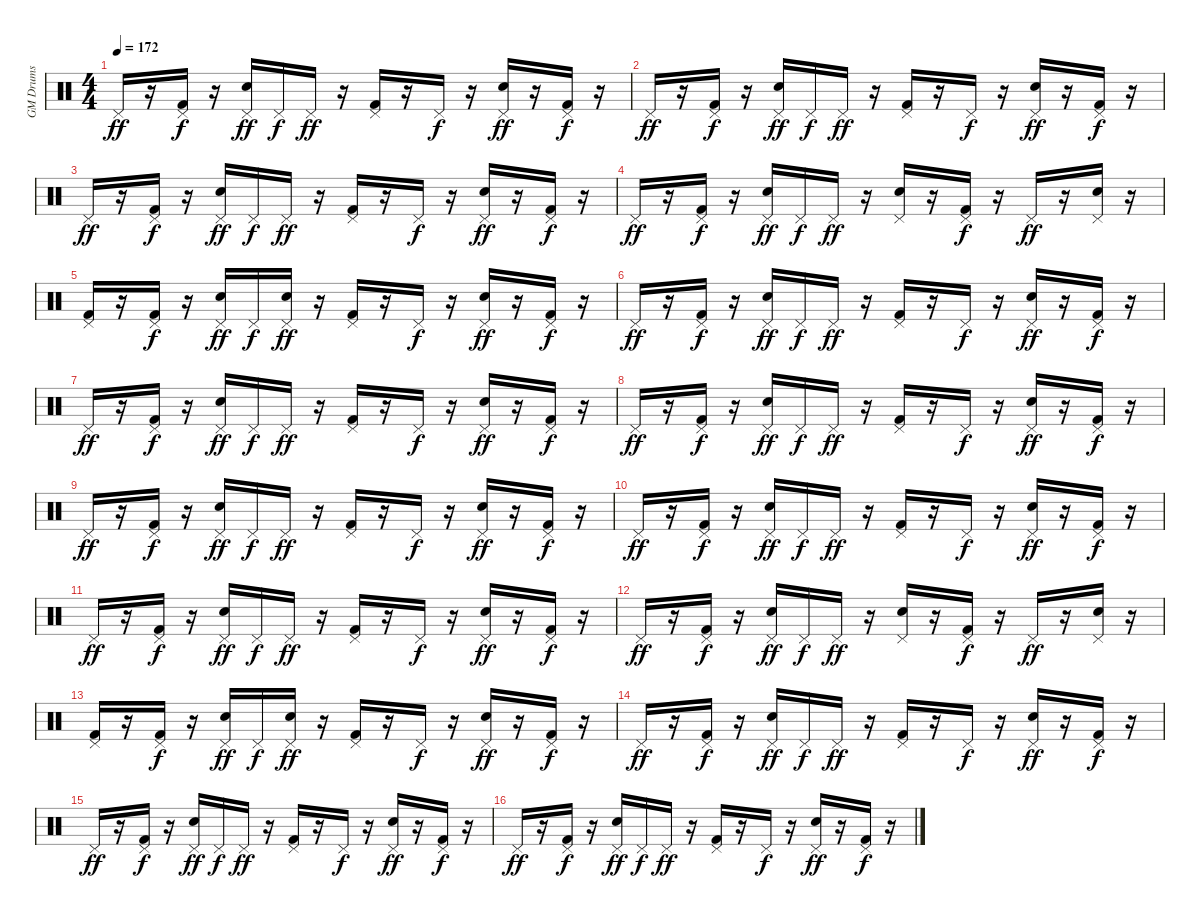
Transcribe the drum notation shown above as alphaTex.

\track ("GM Drums" "GM Drums") {instrument percussion}
\staff {score}
\articulation defaults
\ts (4 4)
\tempo 172
\clef neutral
\ks c "Pedal Hi-Hat (hit)".16{dy ff}
r.16 ("Kick (hit) 2" "Pedal Hi-Hat (hit)").16{dy f} r.16 ("Snare (hit) 2" "Pedal Hi-Hat (hit)").16{dy ff} "Pedal Hi-Hat (hit)".16{dy f} "Pedal Hi-Hat (hit)".16{dy ff} r.16 ("Kick (hit) 2" "Pedal Hi-Hat (hit)").16 r.16 "Pedal Hi-Hat (hit)".16{dy f} r.16 ("Snare (hit) 2" "Pedal Hi-Hat (hit)").16{dy ff} r.16 ("Kick (hit) 2" "Pedal Hi-Hat (hit)").16{dy f} r.16 |
"Pedal Hi-Hat (hit)".16{dy ff} r.16 ("Kick (hit) 2" "Pedal Hi-Hat (hit)").16{dy f} r.16 ("Snare (hit) 2" "Pedal Hi-Hat (hit)").16{dy ff} "Pedal Hi-Hat (hit)".16{dy f} "Pedal Hi-Hat (hit)".16{dy ff} r.16 ("Kick (hit) 2" "Pedal Hi-Hat (hit)").16 r.16 "Pedal Hi-Hat (hit)".16{dy f} r.16 ("Snare (hit) 2" "Pedal Hi-Hat (hit)").16{dy ff} r.16 ("Kick (hit) 2" "Pedal Hi-Hat (hit)").16{dy f} r.16 |
"Pedal Hi-Hat (hit)".16{dy ff} r.16 ("Kick (hit) 2" "Pedal Hi-Hat (hit)").16{dy f} r.16 ("Snare (hit) 2" "Pedal Hi-Hat (hit)").16{dy ff} "Pedal Hi-Hat (hit)".16{dy f} "Pedal Hi-Hat (hit)".16{dy ff} r.16 ("Kick (hit) 2" "Pedal Hi-Hat (hit)").16 r.16 "Pedal Hi-Hat (hit)".16{dy f} r.16 ("Snare (hit) 2" "Pedal Hi-Hat (hit)").16{dy ff} r.16 ("Kick (hit) 2" "Pedal Hi-Hat (hit)").16{dy f} r.16 |
"Pedal Hi-Hat (hit)".16{dy ff} r.16 ("Kick (hit) 2" "Pedal Hi-Hat (hit)").16{dy f} r.16 ("Snare (hit) 2" "Pedal Hi-Hat (hit)").16{dy ff} "Pedal Hi-Hat (hit)".16{dy f} "Pedal Hi-Hat (hit)".16{dy ff} r.16 ("Snare (hit) 2" "Pedal Hi-Hat (hit)").16 r.16 ("Kick (hit) 2" "Pedal Hi-Hat (hit)").16{dy f} r.16 "Pedal Hi-Hat (hit)".16{dy ff} r.16 ("Snare (hit) 2" "Pedal Hi-Hat (hit)").16 r.16 |
("Kick (hit) 2" "Pedal Hi-Hat (hit)").16 r.16 ("Kick (hit) 2" "Pedal Hi-Hat (hit)").16{dy f} r.16 ("Snare (hit) 2" "Pedal Hi-Hat (hit)").16{dy ff} "Pedal Hi-Hat (hit)".16{dy f} ("Snare (hit) 2" "Pedal Hi-Hat (hit)").16{dy ff} r.16 ("Kick (hit) 2" "Pedal Hi-Hat (hit)").16 r.16 "Pedal Hi-Hat (hit)".16{dy f} r.16 ("Snare (hit) 2" "Pedal Hi-Hat (hit)").16{dy ff} r.16 ("Kick (hit) 2" "Pedal Hi-Hat (hit)").16{dy f} r.16 |
"Pedal Hi-Hat (hit)".16{dy ff} r.16 ("Kick (hit) 2" "Pedal Hi-Hat (hit)").16{dy f} r.16 ("Snare (hit) 2" "Pedal Hi-Hat (hit)").16{dy ff} "Pedal Hi-Hat (hit)".16{dy f} "Pedal Hi-Hat (hit)".16{dy ff} r.16 ("Kick (hit) 2" "Pedal Hi-Hat (hit)").16 r.16 "Pedal Hi-Hat (hit)".16{dy f} r.16 ("Snare (hit) 2" "Pedal Hi-Hat (hit)").16{dy ff} r.16 ("Kick (hit) 2" "Pedal Hi-Hat (hit)").16{dy f} r.16 |
"Pedal Hi-Hat (hit)".16{dy ff} r.16 ("Kick (hit) 2" "Pedal Hi-Hat (hit)").16{dy f} r.16 ("Snare (hit) 2" "Pedal Hi-Hat (hit)").16{dy ff} "Pedal Hi-Hat (hit)".16{dy f} "Pedal Hi-Hat (hit)".16{dy ff} r.16 ("Kick (hit) 2" "Pedal Hi-Hat (hit)").16 r.16 "Pedal Hi-Hat (hit)".16{dy f} r.16 ("Snare (hit) 2" "Pedal Hi-Hat (hit)").16{dy ff} r.16 ("Kick (hit) 2" "Pedal Hi-Hat (hit)").16{dy f} r.16 |
"Pedal Hi-Hat (hit)".16{dy ff} r.16 ("Kick (hit) 2" "Pedal Hi-Hat (hit)").16{dy f} r.16 ("Snare (hit) 2" "Pedal Hi-Hat (hit)").16{dy ff} "Pedal Hi-Hat (hit)".16{dy f} "Pedal Hi-Hat (hit)".16{dy ff} r.16 ("Kick (hit) 2" "Pedal Hi-Hat (hit)").16 r.16 "Pedal Hi-Hat (hit)".16{dy f} r.16 ("Snare (hit) 2" "Pedal Hi-Hat (hit)").16{dy ff} r.16 ("Kick (hit) 2" "Pedal Hi-Hat (hit)").16{dy f} r.16 |
"Pedal Hi-Hat (hit)".16{dy ff} r.16 ("Kick (hit) 2" "Pedal Hi-Hat (hit)").16{dy f} r.16 ("Snare (hit) 2" "Pedal Hi-Hat (hit)").16{dy ff} "Pedal Hi-Hat (hit)".16{dy f} "Pedal Hi-Hat (hit)".16{dy ff} r.16 ("Kick (hit) 2" "Pedal Hi-Hat (hit)").16 r.16 "Pedal Hi-Hat (hit)".16{dy f} r.16 ("Snare (hit) 2" "Pedal Hi-Hat (hit)").16{dy ff} r.16 ("Kick (hit) 2" "Pedal Hi-Hat (hit)").16{dy f} r.16 |
"Pedal Hi-Hat (hit)".16{dy ff} r.16 ("Kick (hit) 2" "Pedal Hi-Hat (hit)").16{dy f} r.16 ("Snare (hit) 2" "Pedal Hi-Hat (hit)").16{dy ff} "Pedal Hi-Hat (hit)".16{dy f} "Pedal Hi-Hat (hit)".16{dy ff} r.16 ("Kick (hit) 2" "Pedal Hi-Hat (hit)").16 r.16 "Pedal Hi-Hat (hit)".16{dy f} r.16 ("Snare (hit) 2" "Pedal Hi-Hat (hit)").16{dy ff} r.16 ("Kick (hit) 2" "Pedal Hi-Hat (hit)").16{dy f} r.16 |
"Pedal Hi-Hat (hit)".16{dy ff} r.16 ("Kick (hit) 2" "Pedal Hi-Hat (hit)").16{dy f} r.16 ("Snare (hit) 2" "Pedal Hi-Hat (hit)").16{dy ff} "Pedal Hi-Hat (hit)".16{dy f} "Pedal Hi-Hat (hit)".16{dy ff} r.16 ("Kick (hit) 2" "Pedal Hi-Hat (hit)").16 r.16 "Pedal Hi-Hat (hit)".16{dy f} r.16 ("Snare (hit) 2" "Pedal Hi-Hat (hit)").16{dy ff} r.16 ("Kick (hit) 2" "Pedal Hi-Hat (hit)").16{dy f} r.16 |
"Pedal Hi-Hat (hit)".16{dy ff} r.16 ("Kick (hit) 2" "Pedal Hi-Hat (hit)").16{dy f} r.16 ("Snare (hit) 2" "Pedal Hi-Hat (hit)").16{dy ff} "Pedal Hi-Hat (hit)".16{dy f} "Pedal Hi-Hat (hit)".16{dy ff} r.16 ("Snare (hit) 2" "Pedal Hi-Hat (hit)").16 r.16 ("Kick (hit) 2" "Pedal Hi-Hat (hit)").16{dy f} r.16 "Pedal Hi-Hat (hit)".16{dy ff} r.16 ("Snare (hit) 2" "Pedal Hi-Hat (hit)").16 r.16 |
("Kick (hit) 2" "Pedal Hi-Hat (hit)").16 r.16 ("Kick (hit) 2" "Pedal Hi-Hat (hit)").16{dy f} r.16 ("Snare (hit) 2" "Pedal Hi-Hat (hit)").16{dy ff} "Pedal Hi-Hat (hit)".16{dy f} ("Snare (hit) 2" "Pedal Hi-Hat (hit)").16{dy ff} r.16 ("Kick (hit) 2" "Pedal Hi-Hat (hit)").16 r.16 "Pedal Hi-Hat (hit)".16{dy f} r.16 ("Snare (hit) 2" "Pedal Hi-Hat (hit)").16{dy ff} r.16 ("Kick (hit) 2" "Pedal Hi-Hat (hit)").16{dy f} r.16 |
"Pedal Hi-Hat (hit)".16{dy ff} r.16 ("Kick (hit) 2" "Pedal Hi-Hat (hit)").16{dy f} r.16 ("Snare (hit) 2" "Pedal Hi-Hat (hit)").16{dy ff} "Pedal Hi-Hat (hit)".16{dy f} "Pedal Hi-Hat (hit)".16{dy ff} r.16 ("Kick (hit) 2" "Pedal Hi-Hat (hit)").16 r.16 "Pedal Hi-Hat (hit)".16{dy f} r.16 ("Snare (hit) 2" "Pedal Hi-Hat (hit)").16{dy ff} r.16 ("Kick (hit) 2" "Pedal Hi-Hat (hit)").16{dy f} r.16 |
"Pedal Hi-Hat (hit)".16{dy ff} r.16 ("Kick (hit) 2" "Pedal Hi-Hat (hit)").16{dy f} r.16 ("Snare (hit) 2" "Pedal Hi-Hat (hit)").16{dy ff} "Pedal Hi-Hat (hit)".16{dy f} "Pedal Hi-Hat (hit)".16{dy ff} r.16 ("Kick (hit) 2" "Pedal Hi-Hat (hit)").16 r.16 "Pedal Hi-Hat (hit)".16{dy f} r.16 ("Snare (hit) 2" "Pedal Hi-Hat (hit)").16{dy ff} r.16 ("Kick (hit) 2" "Pedal Hi-Hat (hit)").16{dy f} r.16 |
"Pedal Hi-Hat (hit)".16{dy ff} r.16 ("Kick (hit) 2" "Pedal Hi-Hat (hit)").16{dy f} r.16 ("Snare (hit) 2" "Pedal Hi-Hat (hit)").16{dy ff} "Pedal Hi-Hat (hit)".16{dy f} "Pedal Hi-Hat (hit)".16{dy ff} r.16 ("Kick (hit) 2" "Pedal Hi-Hat (hit)").16 r.16 "Pedal Hi-Hat (hit)".16{dy f} r.16 ("Snare (hit) 2" "Pedal Hi-Hat (hit)").16{dy ff} r.16 ("Kick (hit) 2" "Pedal Hi-Hat (hit)").16{dy f} r.16
